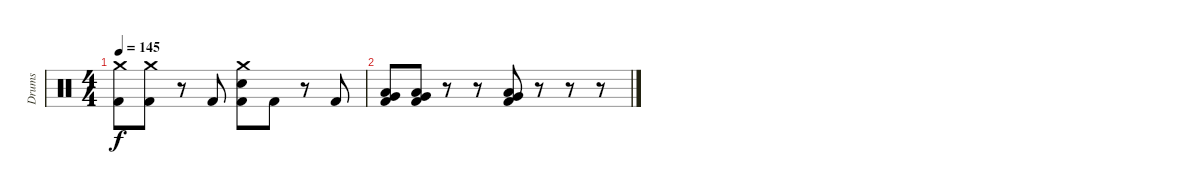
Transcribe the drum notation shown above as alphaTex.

\track ("Drums" "Drums") {instrument percussion}
\staff {score}
\articulation defaults
\ts (4 4)
\tempo 145
\clef neutral
\ks c
("Crash medium (hit)" "Kick (hit) 2").8{dy f} ("Crash medium (hit)" "Kick (hit) 2").8 r.8 "Kick (hit) 2".8 ("Snare (hit) 2" "Crash medium (hit)" "Kick (hit) 2").8 "Kick (hit) 2".8 r.8 "Kick (hit) 2".8 |
("Very Low Tom (hit)" "Low Floor Tom (hit)" "Kick (hit) 2").8 ("Very Low Tom (hit)" "Low Floor Tom (hit)" "Kick (hit) 2").8 r.8 r.8 ("Very Low Tom (hit)" "Low Floor Tom (hit)" "Kick (hit) 2").8 r.8 r.8 r.8
